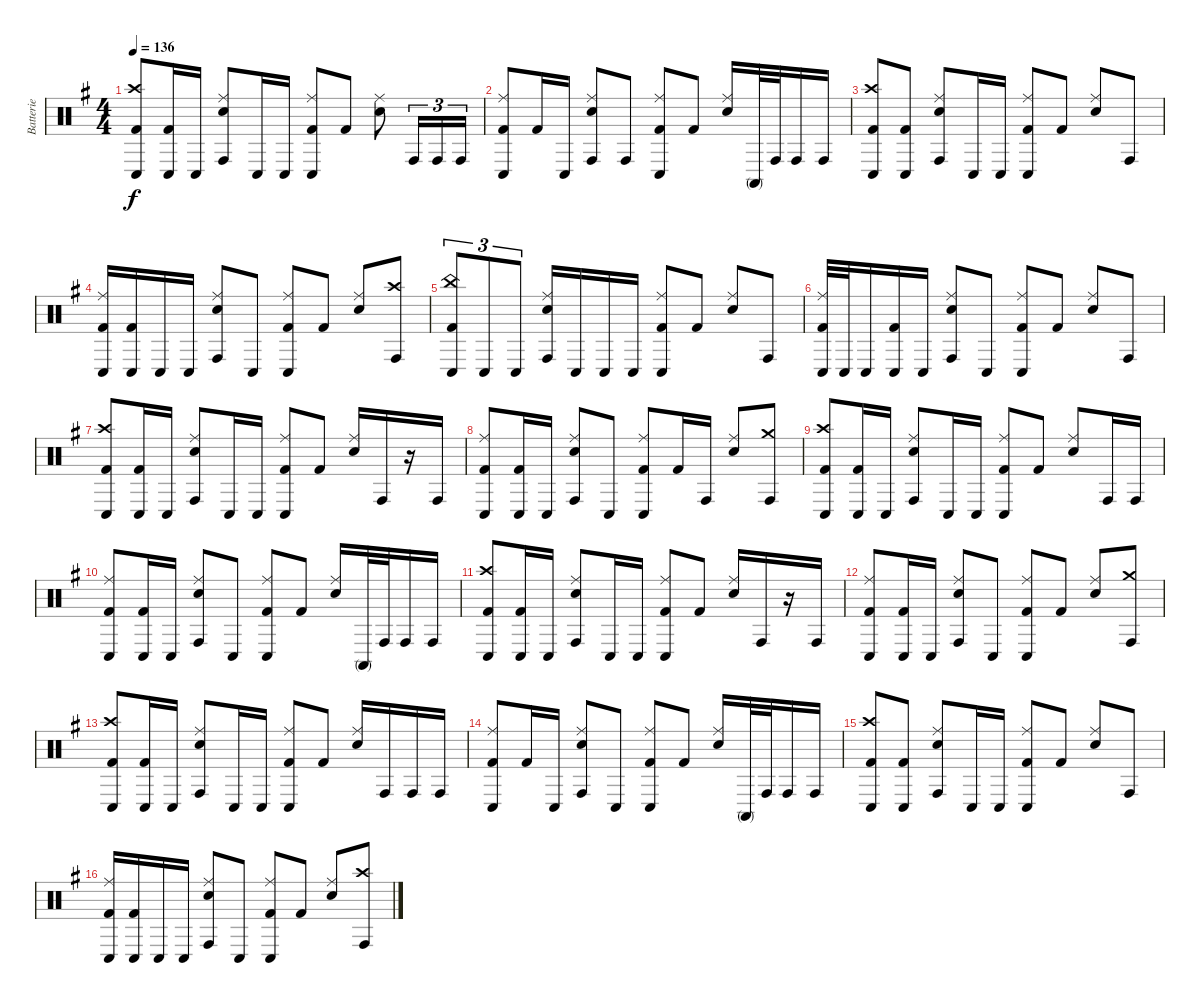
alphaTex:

\track ("Batterie" "Batterie") {instrument percussion}
\staff {score}
\articulation defaults
\ts (4 4)
\tempo 136
\clef neutral
\ks g
("Crash high (hit)" "Conga low (hit)" "Kick (hit) 2").8{dy f} ("Conga low (hit)" "Kick (hit) 2").16 "Conga low (hit)".16 ("Ride (middle)" "Conga high (hit)" "Snare (hit) 2").8 "Conga low (hit)".16 "Conga low (hit)".16 ("Ride (middle)" "Conga low (hit)" "Kick (hit) 2").8 "Kick (hit) 2".8 ("Ride (middle)" "Snare (hit) 2").8 "Conga high (hit)".16{tu (3 2)} "Conga high (hit)".16{tu (3 2)} "Conga high (hit)".16{tu (3 2)} |
("Ride (middle)" "Conga low (hit)" "Kick (hit) 2").8 "Kick (hit) 2".16 "Conga low (hit)".16 ("Ride (middle)" "Conga high (hit)" "Snare (hit) 2").8 "Conga high (hit)".8 ("Ride (middle)" "Conga low (hit)" "Kick (hit) 2").8 "Kick (hit) 2".8 ("Ride (middle)" "Snare (hit) 2").16 "Conga high (mute)".32 "Conga high (hit)".32 "Conga high (hit)".16 "Conga high (hit)".16 |
("Crash high (hit)" "Conga low (hit)" "Kick (hit) 2").8 ("Conga low (hit)" "Kick (hit) 2").8 ("Ride (middle)" "Conga high (hit)" "Snare (hit) 2").8 "Conga low (hit)".16 "Conga low (hit)".16 ("Ride (middle)" "Conga low (hit)" "Kick (hit) 2").8 "Kick (hit) 2".8 ("Ride (middle)" "Snare (hit) 2").8 "Conga high (hit)".8 |
("Ride (middle)" "Conga low (hit)" "Kick (hit) 2").16 ("Conga low (hit)" "Kick (hit) 2").16 "Conga low (hit)".16 "Conga low (hit)".16 ("Ride (middle)" "Conga high (hit)" "Snare (hit) 2").8 "Conga low (hit)".8 ("Ride (middle)" "Conga low (hit)" "Kick (hit) 2").8 "Kick (hit) 2".8 ("Ride (middle)" "Snare (hit) 2").8 ("Crash high (hit)" "Conga high (hit)").8 |
("China (hit)" "Conga low (hit)" "Kick (hit) 2").8{tu (3 2)} "Conga low (hit)".8{tu (3 2)} "Conga low (hit)".8{tu (3 2)} ("Ride (middle)" "Conga high (hit)" "Snare (hit) 2").16 "Conga low (hit)".16 "Conga low (hit)".16 "Conga low (hit)".16 ("Ride (middle)" "Conga low (hit)" "Kick (hit) 2").8 "Kick (hit) 2".8 ("Ride (middle)" "Snare (hit) 2").8 "Conga high (hit)".8 |
("Ride (middle)" "Conga low (hit)" "Kick (hit) 2").32 "Conga low (hit)".32 "Conga low (hit)".16 ("Conga low (hit)" "Kick (hit) 2").16 "Conga low (hit)".16 ("Ride (middle)" "Conga high (hit)" "Snare (hit) 2").8 "Conga low (hit)".8 ("Ride (middle)" "Conga low (hit)" "Kick (hit) 2").8 "Kick (hit) 2".8 ("Ride (middle)" "Snare (hit) 2").8 "Conga high (hit)".8 |
("Crash high (hit)" "Conga low (hit)" "Kick (hit) 2").8 ("Conga low (hit)" "Kick (hit) 2").16 "Conga low (hit)".16 ("Ride (middle)" "Conga high (hit)" "Snare (hit) 2").8 "Conga low (hit)".16 "Conga low (hit)".16 ("Ride (middle)" "Conga low (hit)" "Kick (hit) 2").8 "Kick (hit) 2".8 ("Ride (middle)" "Snare (hit) 2").16 "Conga high (hit)".16 r.16 "Conga high (hit)".16 |
("Ride (middle)" "Conga low (hit)" "Kick (hit) 2").8 ("Conga low (hit)" "Kick (hit) 2").16 "Conga low (hit)".16 ("Ride (middle)" "Conga high (hit)" "Snare (hit) 2").8 "Conga low (hit)".8 ("Ride (middle)" "Conga low (hit)" "Kick (hit) 2").8 "Kick (hit) 2".16 "Conga high (hit)".16 ("Ride (middle)" "Snare (hit) 2").8 ("Crash medium (hit)" "Conga high (hit)").8 |
("Crash high (hit)" "Conga low (hit)" "Kick (hit) 2").8 ("Conga low (hit)" "Kick (hit) 2").16 "Conga low (hit)".16 ("Ride (middle)" "Conga high (hit)" "Snare (hit) 2").8 "Conga low (hit)".16 "Conga low (hit)".16 ("Ride (middle)" "Conga low (hit)" "Kick (hit) 2").8 "Kick (hit) 2".8 ("Ride (middle)" "Snare (hit) 2").8 "Conga high (hit)".16 "Conga high (hit)".16 |
("Ride (middle)" "Conga low (hit)" "Kick (hit) 2").8 ("Conga low (hit)" "Kick (hit) 2").16 "Conga low (hit)".16 ("Ride (middle)" "Conga high (hit)" "Snare (hit) 2").8 "Conga low (hit)".8 ("Ride (middle)" "Conga low (hit)" "Kick (hit) 2").8 "Kick (hit) 2".8 ("Ride (middle)" "Snare (hit) 2").16 "Conga high (mute)".32 "Conga high (hit)".32 "Conga high (hit)".16 "Conga high (hit)".16 |
("Crash high (hit)" "Conga low (hit)" "Kick (hit) 2").8 ("Conga low (hit)" "Kick (hit) 2").16 "Conga low (hit)".16 ("Ride (middle)" "Conga high (hit)" "Snare (hit) 2").8 "Conga low (hit)".16 "Conga low (hit)".16 ("Ride (middle)" "Conga low (hit)" "Kick (hit) 2").8 "Kick (hit) 2".8 ("Ride (middle)" "Snare (hit) 2").16 "Conga high (hit)".16 r.16 "Conga high (hit)".16 |
("Ride (middle)" "Conga low (hit)" "Kick (hit) 2").8 ("Conga low (hit)" "Kick (hit) 2").16 "Conga low (hit)".16 ("Ride (middle)" "Conga high (hit)" "Snare (hit) 2").8 "Conga low (hit)".8 ("Ride (middle)" "Conga low (hit)" "Kick (hit) 2").8 "Kick (hit) 2".8 ("Ride (middle)" "Snare (hit) 2").8 ("Crash medium (hit)" "Conga high (hit)").8 |
("Crash high (hit)" "Conga low (hit)" "Kick (hit) 2").8 ("Conga low (hit)" "Kick (hit) 2").16 "Conga low (hit)".16 ("Ride (middle)" "Conga high (hit)" "Snare (hit) 2").8 "Conga low (hit)".16 "Conga low (hit)".16 ("Ride (middle)" "Conga low (hit)" "Kick (hit) 2").8 "Kick (hit) 2".8 ("Ride (middle)" "Snare (hit) 2").16 "Conga high (hit)".16 "Conga high (hit)".16 "Conga high (hit)".16 |
("Ride (middle)" "Conga low (hit)" "Kick (hit) 2").8 "Kick (hit) 2".16 "Conga low (hit)".16 ("Ride (middle)" "Conga high (hit)" "Snare (hit) 2").8 "Conga low (hit)".8 ("Ride (middle)" "Conga low (hit)" "Kick (hit) 2").8 "Kick (hit) 2".8 ("Ride (middle)" "Snare (hit) 2").16 "Conga high (mute)".32 "Conga high (hit)".32 "Conga high (hit)".16 "Conga high (hit)".16 |
("Crash high (hit)" "Conga low (hit)" "Kick (hit) 2").8 ("Conga low (hit)" "Kick (hit) 2").8 ("Ride (middle)" "Conga high (hit)" "Snare (hit) 2").8 "Conga low (hit)".16 "Conga low (hit)".16 ("Ride (middle)" "Conga low (hit)" "Kick (hit) 2").8 "Kick (hit) 2".8 ("Ride (middle)" "Snare (hit) 2").8 "Conga high (hit)".8 |
("Ride (middle)" "Conga low (hit)" "Kick (hit) 2").16 ("Conga low (hit)" "Kick (hit) 2").16 "Conga low (hit)".16 "Conga low (hit)".16 ("Ride (middle)" "Conga high (hit)" "Snare (hit) 2").8 "Conga low (hit)".8 ("Ride (middle)" "Conga low (hit)" "Kick (hit) 2").8 "Kick (hit) 2".8 ("Ride (middle)" "Snare (hit) 2").8 ("Crash high (hit)" "Conga high (hit)").8
